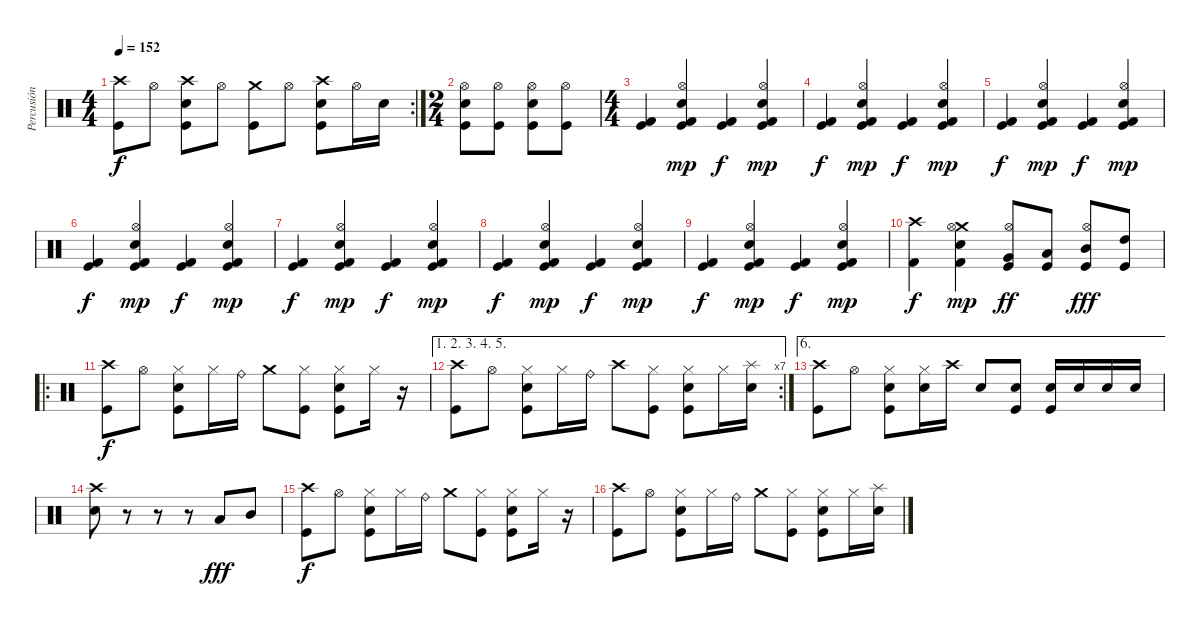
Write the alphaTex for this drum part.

\track ("Percusión" "Percusión") {instrument percussion}
\staff {score}
\articulation defaults
\rc 2
\ts (4 4)
\tempo 152
\clef neutral
\ks c
("Crash high (hit)" "Kick (hit)").8{dy f} "Hi-Hat (open)".8 ("Crash high (hit)" "Electric Snare (hit)" "Kick (hit)").8 "Hi-Hat (open)".8 ("Crash medium (hit)" "Kick (hit)").8 "Hi-Hat (open)".8 ("Crash high (hit)" "Electric Snare (hit)" "Kick (hit)").8 "Hi-Hat (open)".16 "Electric Snare (hit)".16 |
\ts (2 4)
("Hi-Hat (open)" "Electric Snare (hit)" "Kick (hit)").8 ("Hi-Hat (open)" "Kick (hit)").8 ("Hi-Hat (open)" "Electric Snare (hit)" "Kick (hit)").8 ("Hi-Hat (open)" "Kick (hit)").8 |
\ts (4 4)
("Kick (hit)" "Kick (hit) 2").4 ("Kick (hit)" "Kick (hit) 2" "Electric Snare (hit)" "Hi-Hat (open)").4{dy mp} ("Kick (hit)" "Kick (hit) 2").4{dy f} ("Kick (hit)" "Kick (hit) 2" "Electric Snare (hit)" "Hi-Hat (open)").4{dy mp} |
("Kick (hit)" "Kick (hit) 2").4{dy f} ("Kick (hit)" "Kick (hit) 2" "Electric Snare (hit)" "Hi-Hat (open)").4{dy mp} ("Kick (hit)" "Kick (hit) 2").4{dy f} ("Kick (hit)" "Kick (hit) 2" "Electric Snare (hit)" "Hi-Hat (open)").4{dy mp} |
("Kick (hit)" "Kick (hit) 2").4{dy f} ("Kick (hit)" "Kick (hit) 2" "Electric Snare (hit)" "Hi-Hat (open)").4{dy mp} ("Kick (hit)" "Kick (hit) 2").4{dy f} ("Kick (hit)" "Kick (hit) 2" "Electric Snare (hit)" "Hi-Hat (open)").4{dy mp} |
("Kick (hit)" "Kick (hit) 2").4{dy f} ("Kick (hit)" "Kick (hit) 2" "Electric Snare (hit)" "Hi-Hat (open)").4{dy mp} ("Kick (hit)" "Kick (hit) 2").4{dy f} ("Kick (hit)" "Kick (hit) 2" "Electric Snare (hit)" "Hi-Hat (open)").4{dy mp} |
("Kick (hit)" "Kick (hit) 2").4{dy f} ("Kick (hit)" "Kick (hit) 2" "Electric Snare (hit)" "Hi-Hat (open)").4{dy mp} ("Kick (hit)" "Kick (hit) 2").4{dy f} ("Kick (hit)" "Kick (hit) 2" "Electric Snare (hit)" "Hi-Hat (open)").4{dy mp} |
("Kick (hit)" "Kick (hit) 2").4{dy f} ("Kick (hit)" "Kick (hit) 2" "Electric Snare (hit)" "Hi-Hat (open)").4{dy mp} ("Kick (hit)" "Kick (hit) 2").4{dy f} ("Kick (hit)" "Kick (hit) 2" "Electric Snare (hit)" "Hi-Hat (open)").4{dy mp} |
("Kick (hit)" "Kick (hit) 2").4{dy f} ("Kick (hit)" "Kick (hit) 2" "Electric Snare (hit)" "Hi-Hat (open)").4{dy mp} ("Kick (hit)" "Kick (hit) 2").4{dy f} ("Kick (hit)" "Kick (hit) 2" "Electric Snare (hit)" "Hi-Hat (open)").4{dy mp} |
("Crash high (hit)" "Kick (hit) 2").4{dy f} ("Crash medium (hit)" "Kick (hit) 2" "Electric Snare (hit)" "Hi-Hat (open)").4{dy mp} ("Kick (hit)" "Very Low Tom (hit)" "Hi-Hat (open)").8{dy ff} ("Kick (hit)" "Low Tom (hit)").8 ("Kick (hit)" "Mid Tom (hit)" "Hi-Hat (open)").8{dy fff} ("Kick (hit)" "High Tom (hit)").8 |
\ro
("Crash high (hit)" "Kick (hit)").8{dy f} "Hi-Hat (open)".8 ("Hi-Hat (closed)" "Electric Snare (hit)" "Kick (hit)").8 "Hi-Hat (closed)".16 "Ride (bell)".16 "Crash medium (hit)".8 ("Hi-Hat (closed)" "Kick (hit)").8 ("Hi-Hat (closed)" "Electric Snare (hit)" "Kick (hit)").8 "Hi-Hat (closed)".16 r.16 |
\ae (1 2 3 4 5)
\rc 7
("Crash high (hit)" "Kick (hit)").8 "Hi-Hat (open)".8 ("Hi-Hat (closed)" "Electric Snare (hit)" "Kick (hit)").8 "Hi-Hat (closed)".16 "Ride (bell)".16 "Crash high (hit)".8 ("Hi-Hat (closed)" "Kick (hit)").8 ("Hi-Hat (closed)" "Electric Snare (hit)" "Kick (hit)").8 "Hi-Hat (closed)".16 ("Splash (hit)" "Electric Snare (hit)").16 |
\ae 6
("Crash high (hit)" "Kick (hit)").8 "Hi-Hat (open)".8 ("Hi-Hat (closed)" "Electric Snare (hit)" "Kick (hit)").8 ("Hi-Hat (closed)" "Electric Snare (hit)").16 "Crash high (hit)".16 "Electric Snare (hit)".8 ("Electric Snare (hit)" "Kick (hit)").8 ("Electric Snare (hit)" "Kick (hit)").16 "Electric Snare (hit)".16 "Electric Snare (hit)".16 "Electric Snare (hit)".16 |
("Electric Snare (hit)" "Crash high (hit)").8 r.8 r.8 r.8 "Low Tom (hit)".8{dy fff} "Mid Tom (hit)".8 |
("Crash high (hit)" "Kick (hit)").8{dy f} "Hi-Hat (open)".8 ("Hi-Hat (closed)" "Electric Snare (hit)" "Kick (hit)").8 "Hi-Hat (closed)".16 "Ride (bell)".16 "Crash medium (hit)".8 ("Hi-Hat (closed)" "Kick (hit)").8 ("Hi-Hat (closed)" "Electric Snare (hit)" "Kick (hit)").8 "Hi-Hat (closed)".16 r.16 |
("Crash high (hit)" "Kick (hit)").8 "Hi-Hat (open)".8 ("Hi-Hat (closed)" "Electric Snare (hit)" "Kick (hit)").8 "Hi-Hat (closed)".16 "Ride (bell)".16 "Crash medium (hit)".8 ("Hi-Hat (closed)" "Kick (hit)").8 ("Hi-Hat (closed)" "Electric Snare (hit)" "Kick (hit)").8 "Hi-Hat (closed)".16 ("Splash (hit)" "Electric Snare (hit)").16
